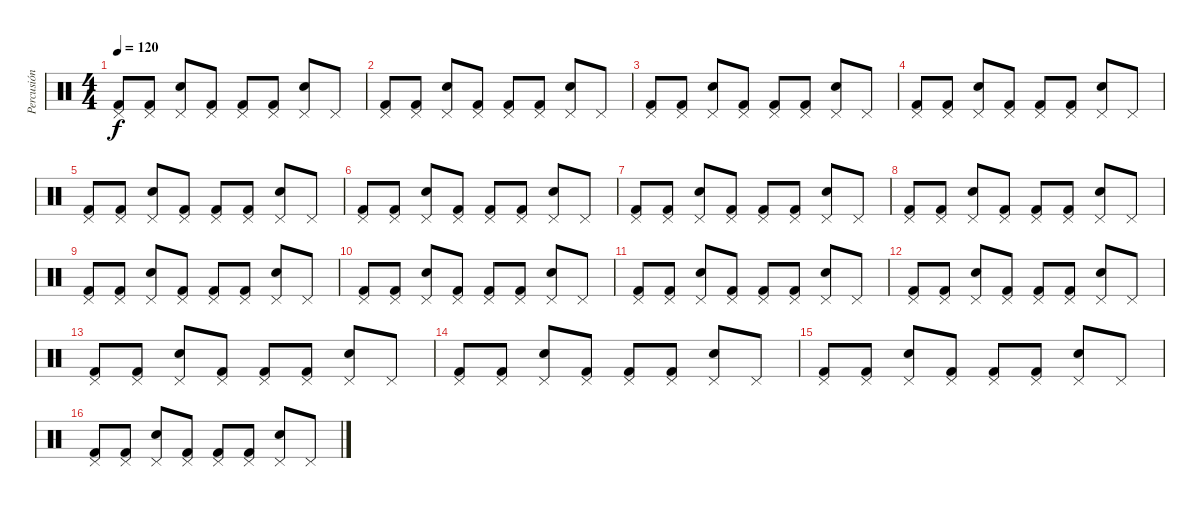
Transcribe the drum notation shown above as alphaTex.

\track ("Percusión" "Percusión") {instrument percussion}
\staff {score}
\articulation defaults
\ts (4 4)
\tempo 120
\clef neutral
\ks c
("Pedal Hi-Hat (hit)" "Kick (hit) 2").8{dy f} ("Pedal Hi-Hat (hit)" "Kick (hit) 2").8 ("Pedal Hi-Hat (hit)" "Electric Snare (hit)").8 ("Pedal Hi-Hat (hit)" "Kick (hit) 2").8 ("Pedal Hi-Hat (hit)" "Kick (hit) 2").8 ("Pedal Hi-Hat (hit)" "Kick (hit) 2").8 ("Pedal Hi-Hat (hit)" "Electric Snare (hit)").8 "Pedal Hi-Hat (hit)".8 |
("Pedal Hi-Hat (hit)" "Kick (hit) 2").8 ("Pedal Hi-Hat (hit)" "Kick (hit) 2").8 ("Pedal Hi-Hat (hit)" "Electric Snare (hit)").8 ("Pedal Hi-Hat (hit)" "Kick (hit) 2").8 ("Pedal Hi-Hat (hit)" "Kick (hit) 2").8 ("Pedal Hi-Hat (hit)" "Kick (hit) 2").8 ("Pedal Hi-Hat (hit)" "Electric Snare (hit)").8 "Pedal Hi-Hat (hit)".8 |
("Pedal Hi-Hat (hit)" "Kick (hit) 2").8 ("Pedal Hi-Hat (hit)" "Kick (hit) 2").8 ("Pedal Hi-Hat (hit)" "Electric Snare (hit)").8 ("Pedal Hi-Hat (hit)" "Kick (hit) 2").8 ("Pedal Hi-Hat (hit)" "Kick (hit) 2").8 ("Pedal Hi-Hat (hit)" "Kick (hit) 2").8 ("Pedal Hi-Hat (hit)" "Electric Snare (hit)").8 "Pedal Hi-Hat (hit)".8 |
("Pedal Hi-Hat (hit)" "Kick (hit) 2").8 ("Pedal Hi-Hat (hit)" "Kick (hit) 2").8 ("Pedal Hi-Hat (hit)" "Electric Snare (hit)").8 ("Pedal Hi-Hat (hit)" "Kick (hit) 2").8 ("Pedal Hi-Hat (hit)" "Kick (hit) 2").8 ("Pedal Hi-Hat (hit)" "Kick (hit) 2").8 ("Pedal Hi-Hat (hit)" "Electric Snare (hit)").8 "Pedal Hi-Hat (hit)".8 |
("Pedal Hi-Hat (hit)" "Kick (hit) 2").8 ("Pedal Hi-Hat (hit)" "Kick (hit) 2").8 ("Pedal Hi-Hat (hit)" "Electric Snare (hit)").8 ("Pedal Hi-Hat (hit)" "Kick (hit) 2").8 ("Pedal Hi-Hat (hit)" "Kick (hit) 2").8 ("Pedal Hi-Hat (hit)" "Kick (hit) 2").8 ("Pedal Hi-Hat (hit)" "Electric Snare (hit)").8 "Pedal Hi-Hat (hit)".8 |
("Pedal Hi-Hat (hit)" "Kick (hit) 2").8 ("Pedal Hi-Hat (hit)" "Kick (hit) 2").8 ("Pedal Hi-Hat (hit)" "Electric Snare (hit)").8 ("Pedal Hi-Hat (hit)" "Kick (hit) 2").8 ("Pedal Hi-Hat (hit)" "Kick (hit) 2").8 ("Pedal Hi-Hat (hit)" "Kick (hit) 2").8 ("Pedal Hi-Hat (hit)" "Electric Snare (hit)").8 "Pedal Hi-Hat (hit)".8 |
("Pedal Hi-Hat (hit)" "Kick (hit) 2").8 ("Pedal Hi-Hat (hit)" "Kick (hit) 2").8 ("Pedal Hi-Hat (hit)" "Electric Snare (hit)").8 ("Pedal Hi-Hat (hit)" "Kick (hit) 2").8 ("Pedal Hi-Hat (hit)" "Kick (hit) 2").8 ("Pedal Hi-Hat (hit)" "Kick (hit) 2").8 ("Pedal Hi-Hat (hit)" "Electric Snare (hit)").8 "Pedal Hi-Hat (hit)".8 |
("Pedal Hi-Hat (hit)" "Kick (hit) 2").8 ("Pedal Hi-Hat (hit)" "Kick (hit) 2").8 ("Pedal Hi-Hat (hit)" "Electric Snare (hit)").8 ("Pedal Hi-Hat (hit)" "Kick (hit) 2").8 ("Pedal Hi-Hat (hit)" "Kick (hit) 2").8 ("Pedal Hi-Hat (hit)" "Kick (hit) 2").8 ("Pedal Hi-Hat (hit)" "Electric Snare (hit)").8 "Pedal Hi-Hat (hit)".8 |
("Pedal Hi-Hat (hit)" "Kick (hit) 2").8 ("Pedal Hi-Hat (hit)" "Kick (hit) 2").8 ("Pedal Hi-Hat (hit)" "Electric Snare (hit)").8 ("Pedal Hi-Hat (hit)" "Kick (hit) 2").8 ("Pedal Hi-Hat (hit)" "Kick (hit) 2").8 ("Pedal Hi-Hat (hit)" "Kick (hit) 2").8 ("Pedal Hi-Hat (hit)" "Electric Snare (hit)").8 "Pedal Hi-Hat (hit)".8 |
("Pedal Hi-Hat (hit)" "Kick (hit) 2").8 ("Pedal Hi-Hat (hit)" "Kick (hit) 2").8 ("Pedal Hi-Hat (hit)" "Electric Snare (hit)").8 ("Pedal Hi-Hat (hit)" "Kick (hit) 2").8 ("Pedal Hi-Hat (hit)" "Kick (hit) 2").8 ("Pedal Hi-Hat (hit)" "Kick (hit) 2").8 ("Pedal Hi-Hat (hit)" "Electric Snare (hit)").8 "Pedal Hi-Hat (hit)".8 |
("Pedal Hi-Hat (hit)" "Kick (hit) 2").8 ("Pedal Hi-Hat (hit)" "Kick (hit) 2").8 ("Pedal Hi-Hat (hit)" "Electric Snare (hit)").8 ("Pedal Hi-Hat (hit)" "Kick (hit) 2").8 ("Pedal Hi-Hat (hit)" "Kick (hit) 2").8 ("Pedal Hi-Hat (hit)" "Kick (hit) 2").8 ("Pedal Hi-Hat (hit)" "Electric Snare (hit)").8 "Pedal Hi-Hat (hit)".8 |
("Pedal Hi-Hat (hit)" "Kick (hit) 2").8 ("Pedal Hi-Hat (hit)" "Kick (hit) 2").8 ("Pedal Hi-Hat (hit)" "Electric Snare (hit)").8 ("Pedal Hi-Hat (hit)" "Kick (hit) 2").8 ("Pedal Hi-Hat (hit)" "Kick (hit) 2").8 ("Pedal Hi-Hat (hit)" "Kick (hit) 2").8 ("Pedal Hi-Hat (hit)" "Electric Snare (hit)").8 "Pedal Hi-Hat (hit)".8 |
("Pedal Hi-Hat (hit)" "Kick (hit) 2").8 ("Pedal Hi-Hat (hit)" "Kick (hit) 2").8 ("Pedal Hi-Hat (hit)" "Electric Snare (hit)").8 ("Pedal Hi-Hat (hit)" "Kick (hit) 2").8 ("Pedal Hi-Hat (hit)" "Kick (hit) 2").8 ("Pedal Hi-Hat (hit)" "Kick (hit) 2").8 ("Pedal Hi-Hat (hit)" "Electric Snare (hit)").8 "Pedal Hi-Hat (hit)".8 |
("Pedal Hi-Hat (hit)" "Kick (hit) 2").8 ("Pedal Hi-Hat (hit)" "Kick (hit) 2").8 ("Pedal Hi-Hat (hit)" "Electric Snare (hit)").8 ("Pedal Hi-Hat (hit)" "Kick (hit) 2").8 ("Pedal Hi-Hat (hit)" "Kick (hit) 2").8 ("Pedal Hi-Hat (hit)" "Kick (hit) 2").8 ("Pedal Hi-Hat (hit)" "Electric Snare (hit)").8 "Pedal Hi-Hat (hit)".8 |
("Pedal Hi-Hat (hit)" "Kick (hit) 2").8 ("Pedal Hi-Hat (hit)" "Kick (hit) 2").8 ("Pedal Hi-Hat (hit)" "Electric Snare (hit)").8 ("Pedal Hi-Hat (hit)" "Kick (hit) 2").8 ("Pedal Hi-Hat (hit)" "Kick (hit) 2").8 ("Pedal Hi-Hat (hit)" "Kick (hit) 2").8 ("Pedal Hi-Hat (hit)" "Electric Snare (hit)").8 "Pedal Hi-Hat (hit)".8 |
("Pedal Hi-Hat (hit)" "Kick (hit) 2").8 ("Pedal Hi-Hat (hit)" "Kick (hit) 2").8 ("Pedal Hi-Hat (hit)" "Electric Snare (hit)").8 ("Pedal Hi-Hat (hit)" "Kick (hit) 2").8 ("Pedal Hi-Hat (hit)" "Kick (hit) 2").8 ("Pedal Hi-Hat (hit)" "Kick (hit) 2").8 ("Pedal Hi-Hat (hit)" "Electric Snare (hit)").8 "Pedal Hi-Hat (hit)".8
